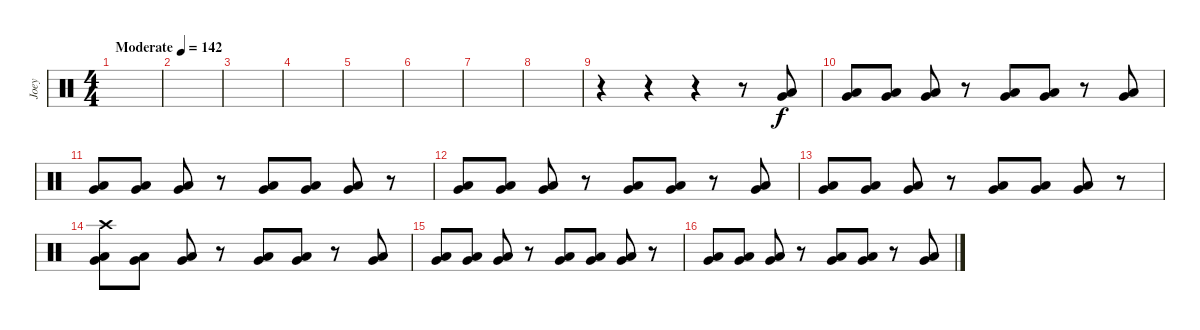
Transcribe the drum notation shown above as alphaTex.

\track ("Joey" "Joey") {instrument percussion}
\staff {score}
\articulation defaults
\ts (4 4)
\tempo (142 "Moderate")
\clef neutral
\ks c
|
|
|
|
|
|
|
|
r.4 r.4 r.4 r.8 ("Very Low Tom (hit)" "Low Floor Tom (hit)").8 |
("Very Low Tom (hit)" "Low Floor Tom (hit)").8 ("Very Low Tom (hit)" "Low Floor Tom (hit)").8 ("Very Low Tom (hit)" "Low Floor Tom (hit)").8 r.8 ("Very Low Tom (hit)" "Low Floor Tom (hit)").8 ("Very Low Tom (hit)" "Low Floor Tom (hit)").8 r.8 ("Very Low Tom (hit)" "Low Floor Tom (hit)").8 |
("Very Low Tom (hit)" "Low Floor Tom (hit)").8 ("Very Low Tom (hit)" "Low Floor Tom (hit)").8 ("Very Low Tom (hit)" "Low Floor Tom (hit)").8 r.8 ("Very Low Tom (hit)" "Low Floor Tom (hit)").8 ("Very Low Tom (hit)" "Low Floor Tom (hit)").8 ("Very Low Tom (hit)" "Low Floor Tom (hit)").8 r.8 |
("Very Low Tom (hit)" "Low Floor Tom (hit)").8 ("Very Low Tom (hit)" "Low Floor Tom (hit)").8 ("Very Low Tom (hit)" "Low Floor Tom (hit)").8 r.8 ("Very Low Tom (hit)" "Low Floor Tom (hit)").8 ("Very Low Tom (hit)" "Low Floor Tom (hit)").8 r.8 ("Very Low Tom (hit)" "Low Floor Tom (hit)").8 |
("Very Low Tom (hit)" "Low Floor Tom (hit)").8 ("Very Low Tom (hit)" "Low Floor Tom (hit)").8 ("Very Low Tom (hit)" "Low Floor Tom (hit)").8 r.8 ("Very Low Tom (hit)" "Low Floor Tom (hit)").8 ("Very Low Tom (hit)" "Low Floor Tom (hit)").8 ("Very Low Tom (hit)" "Low Floor Tom (hit)").8 r.8 |
("Crash high (hit)" "Very Low Tom (hit)" "Low Floor Tom (hit)").8 ("Very Low Tom (hit)" "Low Floor Tom (hit)").8 ("Very Low Tom (hit)" "Low Floor Tom (hit)").8 r.8 ("Very Low Tom (hit)" "Low Floor Tom (hit)").8 ("Very Low Tom (hit)" "Low Floor Tom (hit)").8 r.8 ("Very Low Tom (hit)" "Low Floor Tom (hit)").8 |
("Very Low Tom (hit)" "Low Floor Tom (hit)").8 ("Very Low Tom (hit)" "Low Floor Tom (hit)").8 ("Very Low Tom (hit)" "Low Floor Tom (hit)").8 r.8 ("Very Low Tom (hit)" "Low Floor Tom (hit)").8 ("Very Low Tom (hit)" "Low Floor Tom (hit)").8 ("Very Low Tom (hit)" "Low Floor Tom (hit)").8 r.8 |
("Very Low Tom (hit)" "Low Floor Tom (hit)").8 ("Very Low Tom (hit)" "Low Floor Tom (hit)").8 ("Very Low Tom (hit)" "Low Floor Tom (hit)").8 r.8 ("Very Low Tom (hit)" "Low Floor Tom (hit)").8 ("Very Low Tom (hit)" "Low Floor Tom (hit)").8 r.8 ("Very Low Tom (hit)" "Low Floor Tom (hit)").8
